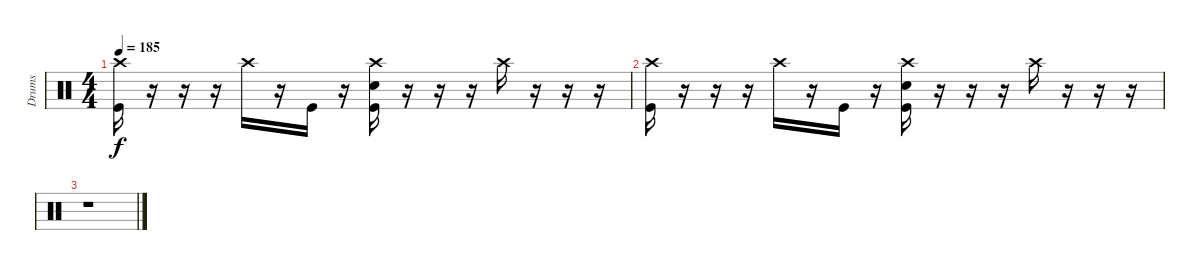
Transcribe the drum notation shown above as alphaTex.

\track ("Drums" "Drums") {instrument percussion}
\staff {score}
\articulation defaults
\ts (4 4)
\tempo 185
\clef neutral
\ks c
("Crash high (hit)" "Kick (hit)").16{dy f volume 0} r.16 r.16 r.16 "Crash high (hit)".16 r.16 "Kick (hit)".16 r.16 ("Crash high (hit)" "Snare (hit) 2" "Kick (hit)").16 r.16 r.16 r.16 "Crash high (hit)".16 r.16 r.16 r.16 |
("Crash high (hit)" "Kick (hit)").16 r.16 r.16 r.16 "Crash high (hit)".16 r.16 "Kick (hit)".16 r.16 ("Crash high (hit)" "Snare (hit) 2" "Kick (hit)").16 r.16 r.16 r.16 "Crash high (hit)".16 r.16 r.16 r.16 |
r.1
